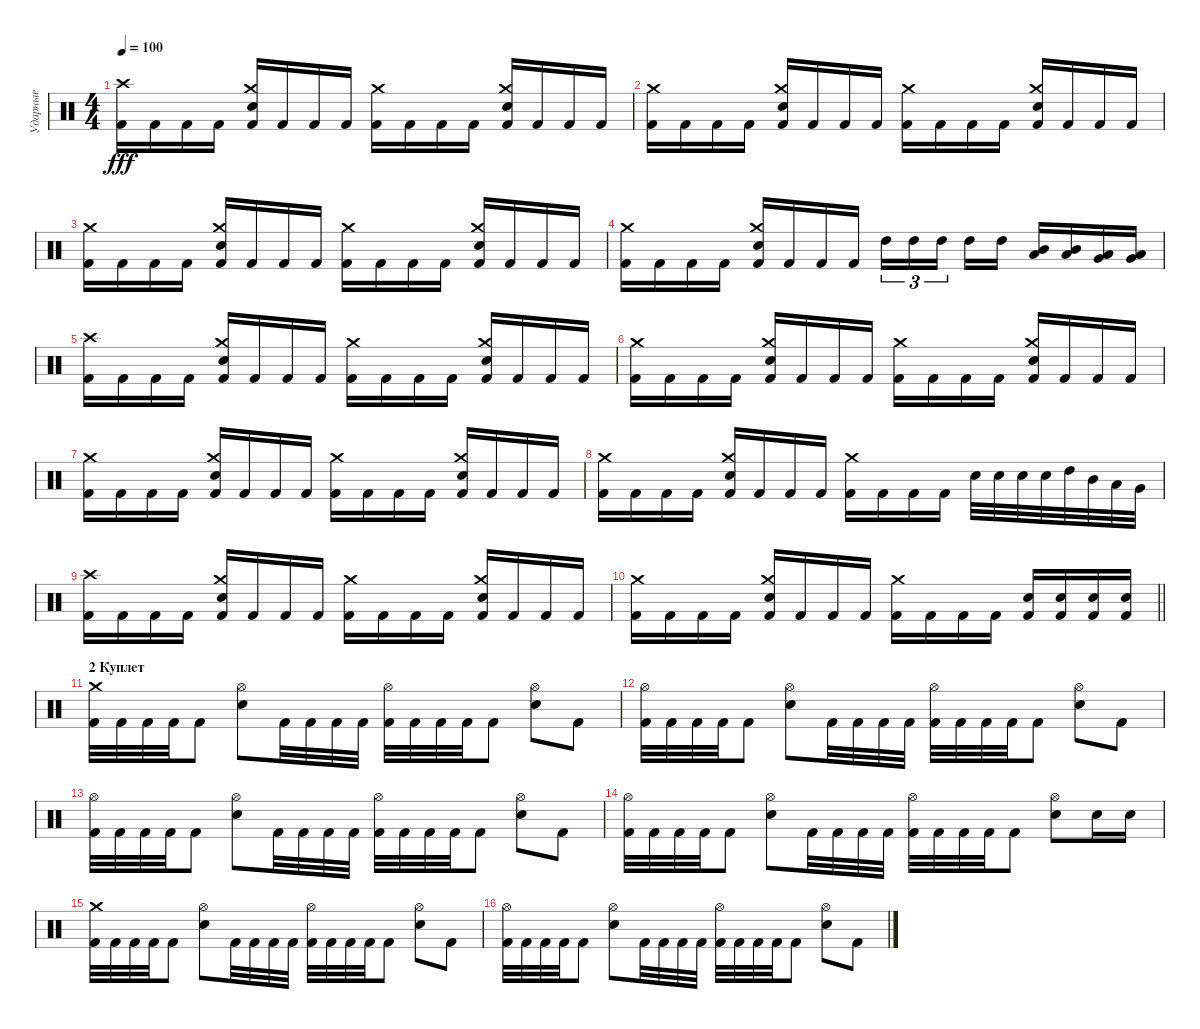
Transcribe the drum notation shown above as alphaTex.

\track ("Ударные" "Ударные") {instrument percussion}
\staff {score}
\articulation defaults
\ts (4 4)
\tempo 100
\clef neutral
\ks c
("Crash high (hit)" "Kick (hit) 2").16{dy fff} "Kick (hit) 2".16 "Kick (hit) 2".16 "Kick (hit) 2".16 ("Crash medium (hit)" "Electric Snare (hit)" "Kick (hit) 2").16 "Kick (hit) 2".16 "Kick (hit) 2".16 "Kick (hit) 2".16 ("Crash medium (hit)" "Kick (hit) 2").16 "Kick (hit) 2".16 "Kick (hit) 2".16 "Kick (hit) 2".16 ("Crash medium (hit)" "Electric Snare (hit)" "Kick (hit) 2").16 "Kick (hit) 2".16 "Kick (hit) 2".16 "Kick (hit) 2".16 |
("Crash medium (hit)" "Kick (hit) 2").16 "Kick (hit) 2".16 "Kick (hit) 2".16 "Kick (hit) 2".16 ("Crash medium (hit)" "Electric Snare (hit)" "Kick (hit) 2").16 "Kick (hit) 2".16 "Kick (hit) 2".16 "Kick (hit) 2".16 ("Crash medium (hit)" "Kick (hit) 2").16 "Kick (hit) 2".16 "Kick (hit) 2".16 "Kick (hit) 2".16 ("Crash medium (hit)" "Electric Snare (hit)" "Kick (hit) 2").16 "Kick (hit) 2".16 "Kick (hit) 2".16 "Kick (hit) 2".16 |
("Crash medium (hit)" "Kick (hit) 2").16 "Kick (hit) 2".16 "Kick (hit) 2".16 "Kick (hit) 2".16 ("Crash medium (hit)" "Electric Snare (hit)" "Kick (hit) 2").16 "Kick (hit) 2".16 "Kick (hit) 2".16 "Kick (hit) 2".16 ("Crash medium (hit)" "Kick (hit) 2").16 "Kick (hit) 2".16 "Kick (hit) 2".16 "Kick (hit) 2".16 ("Crash medium (hit)" "Electric Snare (hit)" "Kick (hit) 2").16 "Kick (hit) 2".16 "Kick (hit) 2".16 "Kick (hit) 2".16 |
("Crash medium (hit)" "Kick (hit) 2").16 "Kick (hit) 2".16 "Kick (hit) 2".16 "Kick (hit) 2".16 ("Crash medium (hit)" "Electric Snare (hit)" "Kick (hit) 2").16 "Kick (hit) 2".16 "Kick (hit) 2".16 "Kick (hit) 2".16 "High Tom (hit)".16{tu (3 2)} "High Tom (hit)".16{tu (3 2)} "High Tom (hit)".16{tu (3 2) beam splitsecondary} "High Tom (hit)".16 "High Tom (hit)".16 ("Mid Tom (hit)" "Low Tom (hit)").16 ("Mid Tom (hit)" "Low Tom (hit)").16 ("Very Low Tom (hit)" "Low Floor Tom (hit)").16 ("Very Low Tom (hit)" "Low Floor Tom (hit)").16 |
("Crash high (hit)" "Kick (hit) 2").16 "Kick (hit) 2".16 "Kick (hit) 2".16 "Kick (hit) 2".16 ("Crash medium (hit)" "Electric Snare (hit)" "Kick (hit) 2").16 "Kick (hit) 2".16 "Kick (hit) 2".16 "Kick (hit) 2".16 ("Crash medium (hit)" "Kick (hit) 2").16 "Kick (hit) 2".16 "Kick (hit) 2".16 "Kick (hit) 2".16 ("Crash medium (hit)" "Electric Snare (hit)" "Kick (hit) 2").16 "Kick (hit) 2".16 "Kick (hit) 2".16 "Kick (hit) 2".16 |
("Crash medium (hit)" "Kick (hit) 2").16 "Kick (hit) 2".16 "Kick (hit) 2".16 "Kick (hit) 2".16 ("Crash medium (hit)" "Electric Snare (hit)" "Kick (hit) 2").16 "Kick (hit) 2".16 "Kick (hit) 2".16 "Kick (hit) 2".16 ("Crash medium (hit)" "Kick (hit) 2").16 "Kick (hit) 2".16 "Kick (hit) 2".16 "Kick (hit) 2".16 ("Crash medium (hit)" "Electric Snare (hit)" "Kick (hit) 2").16 "Kick (hit) 2".16 "Kick (hit) 2".16 "Kick (hit) 2".16 |
("Crash medium (hit)" "Kick (hit) 2").16 "Kick (hit) 2".16 "Kick (hit) 2".16 "Kick (hit) 2".16 ("Crash medium (hit)" "Electric Snare (hit)" "Kick (hit) 2").16 "Kick (hit) 2".16 "Kick (hit) 2".16 "Kick (hit) 2".16 ("Crash medium (hit)" "Kick (hit) 2").16 "Kick (hit) 2".16 "Kick (hit) 2".16 "Kick (hit) 2".16 ("Crash medium (hit)" "Electric Snare (hit)" "Kick (hit) 2").16 "Kick (hit) 2".16 "Kick (hit) 2".16 "Kick (hit) 2".16 |
("Crash medium (hit)" "Kick (hit) 2").16 "Kick (hit) 2".16 "Kick (hit) 2".16 "Kick (hit) 2".16 ("Crash medium (hit)" "Electric Snare (hit)" "Kick (hit) 2").16 "Kick (hit) 2".16 "Kick (hit) 2".16 "Kick (hit) 2".16 ("Crash medium (hit)" "Kick (hit) 2").16 "Kick (hit) 2".16 "Kick (hit) 2".16 "Kick (hit) 2".16 "Electric Snare (hit)".32 "Electric Snare (hit)".32 "Electric Snare (hit)".32 "Electric Snare (hit)".32 "High Tom (hit)".32 "Mid Tom (hit)".32 "Low Tom (hit)".32 "Very Low Tom (hit)".32 |
("Crash high (hit)" "Kick (hit) 2").16 "Kick (hit) 2".16 "Kick (hit) 2".16 "Kick (hit) 2".16 ("Crash medium (hit)" "Electric Snare (hit)" "Kick (hit) 2").16 "Kick (hit) 2".16 "Kick (hit) 2".16 "Kick (hit) 2".16 ("Crash medium (hit)" "Kick (hit) 2").16 "Kick (hit) 2".16 "Kick (hit) 2".16 "Kick (hit) 2".16 ("Crash medium (hit)" "Electric Snare (hit)" "Kick (hit) 2").16 "Kick (hit) 2".16 "Kick (hit) 2".16 "Kick (hit) 2".16 |
\barLineRight lightlight
("Crash medium (hit)" "Kick (hit) 2").16 "Kick (hit) 2".16 "Kick (hit) 2".16 "Kick (hit) 2".16 ("Crash medium (hit)" "Electric Snare (hit)" "Kick (hit) 2").16 "Kick (hit) 2".16 "Kick (hit) 2".16 "Kick (hit) 2".16 ("Crash medium (hit)" "Kick (hit) 2").16 "Kick (hit) 2".16 "Kick (hit) 2".16 "Kick (hit) 2".16 ("Electric Snare (hit)" "Kick (hit) 2").16 ("Electric Snare (hit)" "Kick (hit) 2").16 ("Electric Snare (hit)" "Kick (hit) 2").16 ("Electric Snare (hit)" "Kick (hit) 2").16 |
\section ("" "2 Куплет")
("Crash medium (hit)" "Kick (hit) 2").32 "Kick (hit) 2".32 "Kick (hit) 2".32 "Kick (hit) 2".32 "Kick (hit) 2".8 ("Hi-Hat (open)" "Electric Snare (hit)").8 "Kick (hit) 2".32 "Kick (hit) 2".32 "Kick (hit) 2".32 "Kick (hit) 2".32 ("Hi-Hat (open)" "Kick (hit) 2").32 "Kick (hit) 2".32 "Kick (hit) 2".32 "Kick (hit) 2".32 "Kick (hit) 2".8 ("Hi-Hat (open)" "Electric Snare (hit)").8 "Kick (hit) 2".8 |
("Hi-Hat (open)" "Kick (hit) 2").32 "Kick (hit) 2".32 "Kick (hit) 2".32 "Kick (hit) 2".32 "Kick (hit) 2".8 ("Hi-Hat (open)" "Electric Snare (hit)").8 "Kick (hit) 2".32 "Kick (hit) 2".32 "Kick (hit) 2".32 "Kick (hit) 2".32 ("Hi-Hat (open)" "Kick (hit) 2").32 "Kick (hit) 2".32 "Kick (hit) 2".32 "Kick (hit) 2".32 "Kick (hit) 2".8 ("Hi-Hat (open)" "Electric Snare (hit)").8 "Kick (hit) 2".8 |
("Hi-Hat (open)" "Kick (hit) 2").32 "Kick (hit) 2".32 "Kick (hit) 2".32 "Kick (hit) 2".32 "Kick (hit) 2".8 ("Hi-Hat (open)" "Electric Snare (hit)").8 "Kick (hit) 2".32 "Kick (hit) 2".32 "Kick (hit) 2".32 "Kick (hit) 2".32 ("Hi-Hat (open)" "Kick (hit) 2").32 "Kick (hit) 2".32 "Kick (hit) 2".32 "Kick (hit) 2".32 "Kick (hit) 2".8 ("Hi-Hat (open)" "Electric Snare (hit)").8 "Kick (hit) 2".8 |
("Hi-Hat (open)" "Kick (hit) 2").32 "Kick (hit) 2".32 "Kick (hit) 2".32 "Kick (hit) 2".32 "Kick (hit) 2".8 ("Hi-Hat (open)" "Electric Snare (hit)").8 "Kick (hit) 2".32 "Kick (hit) 2".32 "Kick (hit) 2".32 "Kick (hit) 2".32 ("Hi-Hat (open)" "Kick (hit) 2").32 "Kick (hit) 2".32 "Kick (hit) 2".32 "Kick (hit) 2".32 "Kick (hit) 2".8 ("Hi-Hat (open)" "Electric Snare (hit)").8 "Electric Snare (hit)".16 "Electric Snare (hit)".16 |
("Crash medium (hit)" "Kick (hit) 2").32 "Kick (hit) 2".32 "Kick (hit) 2".32 "Kick (hit) 2".32 "Kick (hit) 2".8 ("Hi-Hat (open)" "Electric Snare (hit)").8 "Kick (hit) 2".32 "Kick (hit) 2".32 "Kick (hit) 2".32 "Kick (hit) 2".32 ("Hi-Hat (open)" "Kick (hit) 2").32 "Kick (hit) 2".32 "Kick (hit) 2".32 "Kick (hit) 2".32 "Kick (hit) 2".8 ("Hi-Hat (open)" "Electric Snare (hit)").8 "Kick (hit) 2".8 |
("Hi-Hat (open)" "Kick (hit) 2").32 "Kick (hit) 2".32 "Kick (hit) 2".32 "Kick (hit) 2".32 "Kick (hit) 2".8 ("Hi-Hat (open)" "Electric Snare (hit)").8 "Kick (hit) 2".32 "Kick (hit) 2".32 "Kick (hit) 2".32 "Kick (hit) 2".32 ("Hi-Hat (open)" "Kick (hit) 2").32 "Kick (hit) 2".32 "Kick (hit) 2".32 "Kick (hit) 2".32 "Kick (hit) 2".8 ("Hi-Hat (open)" "Electric Snare (hit)").8 "Kick (hit) 2".8
